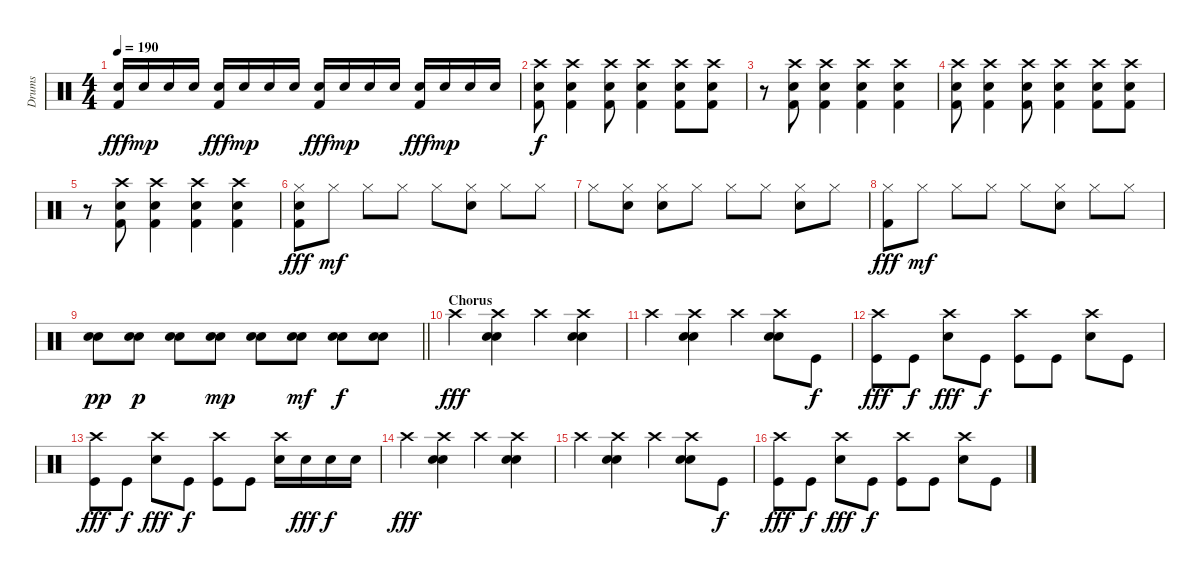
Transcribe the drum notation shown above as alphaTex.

\track ("Drums" "Drums") {instrument percussion}
\staff {score}
\articulation defaults
\ts (4 4)
\tempo 190
\clef neutral
\ks c
("Snare (hit) 2" "Kick (hit) 2").16{dy fff} "Snare (hit) 2".16{dy mp} "Snare (hit) 2".16 "Snare (hit) 2".16 ("Snare (hit) 2" "Kick (hit) 2").16{dy fff} "Snare (hit) 2".16{dy mp} "Snare (hit) 2".16 "Snare (hit) 2".16 ("Snare (hit) 2" "Kick (hit) 2").16{dy fff} "Snare (hit) 2".16{dy mp} "Snare (hit) 2".16 "Snare (hit) 2".16 ("Snare (hit) 2" "Kick (hit) 2").16{dy fff} "Snare (hit) 2".16{dy mp} "Snare (hit) 2".16 "Snare (hit) 2".16 |
("Crash high (hit)" "Snare (hit) 2" "Kick (hit) 2").8{dy f} ("Crash high (hit)" "Snare (hit) 2" "Kick (hit) 2").4 ("Crash high (hit)" "Snare (hit) 2" "Kick (hit) 2").8 ("Crash high (hit)" "Snare (hit) 2" "Kick (hit) 2").4 ("Crash high (hit)" "Snare (hit) 2" "Kick (hit) 2").8 ("Crash high (hit)" "Snare (hit) 2" "Kick (hit) 2").8 |
r.8 ("Crash high (hit)" "Snare (hit) 2" "Kick (hit) 2").8 ("Crash high (hit)" "Snare (hit) 2" "Kick (hit) 2").4 ("Crash high (hit)" "Snare (hit) 2" "Kick (hit) 2").4 ("Crash high (hit)" "Snare (hit) 2" "Kick (hit) 2").4 |
("Crash high (hit)" "Snare (hit) 2" "Kick (hit) 2").8 ("Crash high (hit)" "Snare (hit) 2" "Kick (hit) 2").4 ("Crash high (hit)" "Snare (hit) 2" "Kick (hit) 2").8 ("Crash high (hit)" "Snare (hit) 2" "Kick (hit) 2").4 ("Crash high (hit)" "Snare (hit) 2" "Kick (hit) 2").8 ("Crash high (hit)" "Snare (hit) 2" "Kick (hit) 2").8 |
r.8 ("Crash high (hit)" "Snare (hit) 2" "Kick (hit) 2").8 ("Crash high (hit)" "Snare (hit) 2" "Kick (hit) 2").4 ("Crash high (hit)" "Snare (hit) 2" "Kick (hit) 2").4 ("Crash high (hit)" "Snare (hit) 2" "Kick (hit) 2").4 |
("Hi-Hat (closed)" "Snare (hit) 2" "Kick (hit) 2").8{dy fff} "Hi-Hat (closed)".8{dy mf} "Hi-Hat (closed)".8 "Hi-Hat (closed)".8 "Hi-Hat (closed)".8 ("Hi-Hat (closed)" "Snare (hit) 2").8 "Hi-Hat (closed)".8 "Hi-Hat (closed)".8 |
"Hi-Hat (closed)".8 ("Hi-Hat (closed)" "Snare (hit) 2").8 ("Hi-Hat (closed)" "Snare (hit) 2").8 "Hi-Hat (closed)".8 "Hi-Hat (closed)".8 "Hi-Hat (closed)".8 ("Hi-Hat (closed)" "Snare (hit) 2").8 "Hi-Hat (closed)".8 |
("Hi-Hat (closed)" "Kick (hit) 2").8{dy fff} "Hi-Hat (closed)".8{dy mf} "Hi-Hat (closed)".8 "Hi-Hat (closed)".8 "Hi-Hat (closed)".8 ("Hi-Hat (closed)" "Snare (hit) 2").8 "Hi-Hat (closed)".8 "Hi-Hat (closed)".8 |
\barLineRight lightlight
("Snare (hit) 2" "Snare (hit) 2").8{dy pp} ("Snare (hit) 2" "Snare (hit) 2").8{dy p} ("Snare (hit) 2" "Snare (hit) 2").8 ("Snare (hit) 2" "Snare (hit) 2").8{dy mp} ("Snare (hit) 2" "Snare (hit) 2").8 ("Snare (hit) 2" "Snare (hit) 2").8{dy mf} ("Snare (hit) 2" "Snare (hit) 2").8{dy f} ("Snare (hit) 2" "Snare (hit) 2").8 |
\section ("" "Chorus")
"Crash high (hit)".4{dy fff} ("Crash high (hit)" "Snare (hit) 2" "Snare (hit) 2").4 "Crash high (hit)".4 ("Crash high (hit)" "Snare (hit) 2" "Snare (hit) 2").4 |
"Crash high (hit)".4 ("Crash high (hit)" "Snare (hit) 2" "Snare (hit) 2").4 "Crash high (hit)".4 ("Crash high (hit)" "Snare (hit) 2" "Snare (hit) 2").8 "Kick (hit)".8{dy f} |
("Crash high (hit)" "Kick (hit)").8{dy fff} "Kick (hit)".8{dy f} ("Crash high (hit)" "Snare (hit) 2").8{dy fff} "Kick (hit)".8{dy f} ("Crash high (hit)" "Kick (hit)").8 "Kick (hit)".8 ("Crash high (hit)" "Snare (hit) 2").8 "Kick (hit)".8 |
("Crash high (hit)" "Kick (hit)").8{dy fff} "Kick (hit)".8{dy f} ("Crash high (hit)" "Snare (hit) 2").8{dy fff} "Kick (hit)".8{dy f} ("Crash high (hit)" "Kick (hit)").8 "Kick (hit)".8 ("Crash high (hit)" "Snare (hit) 2").16 "Snare (hit) 2".16{dy fff} "Snare (hit) 2".16{dy f} "Snare (hit) 2".16 |
"Crash high (hit)".4{dy fff} ("Crash high (hit)" "Snare (hit) 2" "Snare (hit) 2").4 "Crash high (hit)".4 ("Crash high (hit)" "Snare (hit) 2" "Snare (hit) 2").4 |
"Crash high (hit)".4 ("Crash high (hit)" "Snare (hit) 2" "Snare (hit) 2").4 "Crash high (hit)".4 ("Crash high (hit)" "Snare (hit) 2" "Snare (hit) 2").8 "Kick (hit)".8{dy f} |
("Crash high (hit)" "Kick (hit)").8{dy fff} "Kick (hit)".8{dy f} ("Crash high (hit)" "Snare (hit) 2").8{dy fff} "Kick (hit)".8{dy f} ("Crash high (hit)" "Kick (hit)").8 "Kick (hit)".8 ("Crash high (hit)" "Snare (hit) 2").8 "Kick (hit)".8
